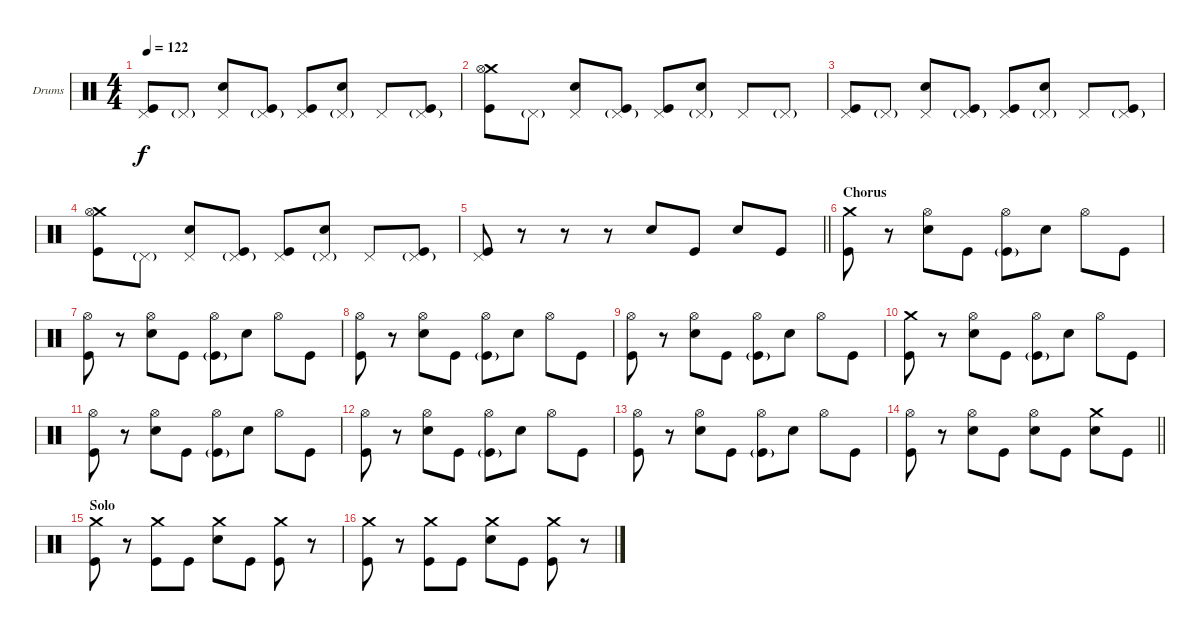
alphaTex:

\bracketExtendMode groupsimilarinstruments
\firstSystemTrackNameOrientation horizontal
\otherSystemsTrackNameOrientation horizontal
\track ("Drumkit" "Drums") {instrument percussion}
\staff {score}
\articulation defaults
\ts (4 4)
\tempo 122
\clef neutral
\ks c
("Pedal Hi-Hat (hit)" "Kick (hit)").8{dy f} "Pedal Hi-Hat (hit)"{g}.8 ("Pedal Hi-Hat (hit)" "Snare (hit) 2").8 ("Pedal Hi-Hat (hit)"{g} "Kick (hit)").8 ("Pedal Hi-Hat (hit)" "Kick (hit)").8 ("Snare (hit) 2" "Pedal Hi-Hat (hit)"{g}).8 "Pedal Hi-Hat (hit)".8 ("Pedal Hi-Hat (hit)"{g} "Kick (hit)").8 |
("Crash medium (hit)" "Hi-Hat (open)" "Kick (hit)").8 "Pedal Hi-Hat (hit)"{g}.8 ("Pedal Hi-Hat (hit)" "Snare (hit) 2").8 ("Pedal Hi-Hat (hit)"{g} "Kick (hit)").8 ("Pedal Hi-Hat (hit)" "Kick (hit)").8 ("Snare (hit) 2" "Pedal Hi-Hat (hit)"{g}).8 "Pedal Hi-Hat (hit)".8 "Pedal Hi-Hat (hit)"{g}.8 |
("Pedal Hi-Hat (hit)" "Kick (hit)").8 "Pedal Hi-Hat (hit)"{g}.8 ("Pedal Hi-Hat (hit)" "Snare (hit) 2").8 ("Pedal Hi-Hat (hit)"{g} "Kick (hit)").8 ("Pedal Hi-Hat (hit)" "Kick (hit)").8 ("Snare (hit) 2" "Pedal Hi-Hat (hit)"{g}).8 "Pedal Hi-Hat (hit)".8 ("Pedal Hi-Hat (hit)"{g} "Kick (hit)").8 |
("Crash medium (hit)" "Hi-Hat (open)" "Kick (hit)").8 "Pedal Hi-Hat (hit)"{g}.8 ("Pedal Hi-Hat (hit)" "Snare (hit) 2").8 ("Pedal Hi-Hat (hit)"{g} "Kick (hit)").8 ("Pedal Hi-Hat (hit)" "Kick (hit)").8 ("Snare (hit) 2" "Pedal Hi-Hat (hit)"{g}).8 "Pedal Hi-Hat (hit)".8 ("Pedal Hi-Hat (hit)"{g} "Kick (hit)").8 |
\barLineRight lightlight
("Pedal Hi-Hat (hit)" "Kick (hit)").8 r.8 r.8 r.8 "Snare (hit) 2".8 "Kick (hit)".8 "Snare (hit) 2".8 "Kick (hit)".8 |
\section ("" "Chorus")
("Crash medium (hit)" "Kick (hit)").8 r.8 ("Hi-Hat (open)" "Snare (hit) 2").8 "Kick (hit)".8 ("Hi-Hat (open)" "Kick (hit)"{g}).8 "Snare (hit) 2".8 "Hi-Hat (open)".8 "Kick (hit)".8 |
("Hi-Hat (open)" "Kick (hit)").8 r.8 ("Hi-Hat (open)" "Snare (hit) 2").8 "Kick (hit)".8 ("Hi-Hat (open)" "Kick (hit)"{g}).8 "Snare (hit) 2".8 "Hi-Hat (open)".8 "Kick (hit)".8 |
("Hi-Hat (open)" "Kick (hit)").8 r.8 ("Hi-Hat (open)" "Snare (hit) 2").8 "Kick (hit)".8 ("Hi-Hat (open)" "Kick (hit)"{g}).8 "Snare (hit) 2".8 "Hi-Hat (open)".8 "Kick (hit)".8 |
("Hi-Hat (open)" "Kick (hit)").8 r.8 ("Hi-Hat (open)" "Snare (hit) 2").8 "Kick (hit)".8 ("Hi-Hat (open)" "Kick (hit)"{g}).8 "Snare (hit) 2".8 "Hi-Hat (open)".8 "Kick (hit)".8 |
("Crash medium (hit)" "Kick (hit)").8 r.8 ("Hi-Hat (open)" "Snare (hit) 2").8 "Kick (hit)".8 ("Hi-Hat (open)" "Kick (hit)"{g}).8 "Snare (hit) 2".8 "Hi-Hat (open)".8 "Kick (hit)".8 |
("Hi-Hat (open)" "Kick (hit)").8 r.8 ("Hi-Hat (open)" "Snare (hit) 2").8 "Kick (hit)".8 ("Hi-Hat (open)" "Kick (hit)"{g}).8 "Snare (hit) 2".8 "Hi-Hat (open)".8 "Kick (hit)".8 |
("Hi-Hat (open)" "Kick (hit)").8 r.8 ("Hi-Hat (open)" "Snare (hit) 2").8 "Kick (hit)".8 ("Hi-Hat (open)" "Kick (hit)"{g}).8 "Snare (hit) 2".8 "Hi-Hat (open)".8 "Kick (hit)".8 |
("Hi-Hat (open)" "Kick (hit)").8 r.8 ("Hi-Hat (open)" "Snare (hit) 2").8 "Kick (hit)".8 ("Hi-Hat (open)" "Kick (hit)"{g}).8 "Snare (hit) 2".8 "Hi-Hat (open)".8 "Kick (hit)".8 |
\barLineRight lightlight
("Hi-Hat (open)" "Kick (hit)").8 r.8 ("Hi-Hat (open)" "Snare (hit) 2").8 "Kick (hit)".8 ("Hi-Hat (open)" "Snare (hit) 2").8 "Kick (hit)".8 ("Crash medium (hit)" "Snare (hit) 2").8 "Kick (hit)".8 |
\section ("" "Solo")
("Crash medium (hit)" "Kick (hit)").8 r.8 ("Crash medium (hit)" "Kick (hit)").8 "Kick (hit)".8 ("Crash medium (hit)" "Snare (hit) 2").8 "Kick (hit)".8 ("Crash medium (hit)" "Kick (hit)").8 r.8 |
("Crash medium (hit)" "Kick (hit)").8 r.8 ("Crash medium (hit)" "Kick (hit)").8 "Kick (hit)".8 ("Crash medium (hit)" "Snare (hit) 2").8 "Kick (hit)".8 ("Crash medium (hit)" "Kick (hit)").8 r.8
